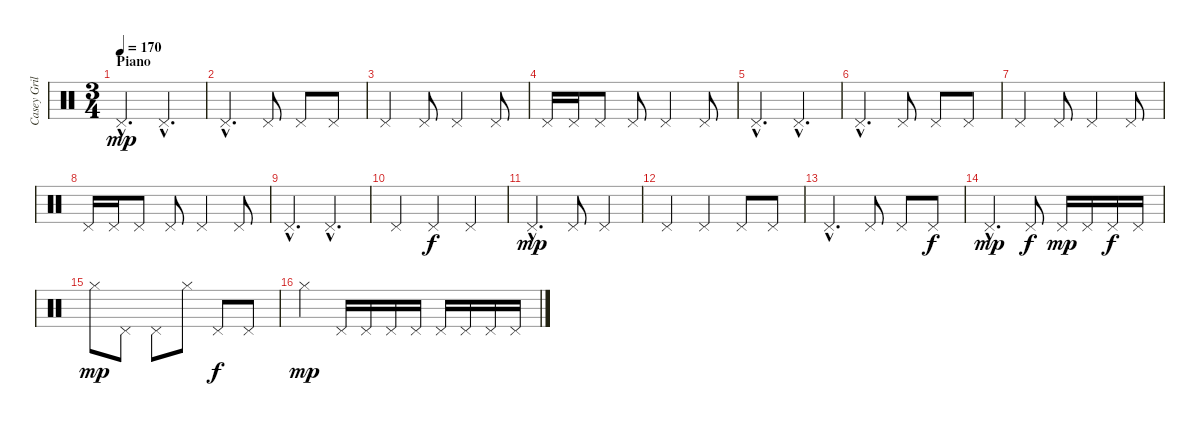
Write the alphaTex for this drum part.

\track ("Casey Grillo" "Casey Gril") {instrument percussion}
\staff {score}
\articulation defaults
\ts (3 4)
\section ("" "Piano")
\tempo 170
\clef neutral
\ks c "Pedal Hi-Hat (hit)"{hac}.4{d dy mp} "Pedal Hi-Hat (hit)"{hac}.4{d}
|
"Pedal Hi-Hat (hit)"{hac}.4{d} "Pedal Hi-Hat (hit)".8 "Pedal Hi-Hat (hit)".8 "Pedal Hi-Hat (hit)".8 |
"Pedal Hi-Hat (hit)".4 "Pedal Hi-Hat (hit)".8 "Pedal Hi-Hat (hit)".4 "Pedal Hi-Hat (hit)".8 |
"Pedal Hi-Hat (hit)".16 "Pedal Hi-Hat (hit)".16 "Pedal Hi-Hat (hit)".8 "Pedal Hi-Hat (hit)".8 "Pedal Hi-Hat (hit)".4 "Pedal Hi-Hat (hit)".8 |
"Pedal Hi-Hat (hit)"{hac}.4{d} "Pedal Hi-Hat (hit)"{hac}.4{d} |
"Pedal Hi-Hat (hit)"{hac}.4{d} "Pedal Hi-Hat (hit)".8 "Pedal Hi-Hat (hit)".8 "Pedal Hi-Hat (hit)".8 |
"Pedal Hi-Hat (hit)".4 "Pedal Hi-Hat (hit)".8 "Pedal Hi-Hat (hit)".4 "Pedal Hi-Hat (hit)".8 |
"Pedal Hi-Hat (hit)".16 "Pedal Hi-Hat (hit)".16 "Pedal Hi-Hat (hit)".8 "Pedal Hi-Hat (hit)".8 "Pedal Hi-Hat (hit)".4 "Pedal Hi-Hat (hit)".8 |
"Pedal Hi-Hat (hit)"{hac}.4{d} "Pedal Hi-Hat (hit)"{hac}.4{d} |
"Pedal Hi-Hat (hit)".4 "Pedal Hi-Hat (hit)".4{dy f} "Pedal Hi-Hat (hit)".4 |
"Pedal Hi-Hat (hit)"{hac}.4{d dy mp} "Pedal Hi-Hat (hit)".8 "Pedal Hi-Hat (hit)".4 |
"Pedal Hi-Hat (hit)".4 "Pedal Hi-Hat (hit)".4 "Pedal Hi-Hat (hit)".8 "Pedal Hi-Hat (hit)".8 |
"Pedal Hi-Hat (hit)"{hac}.4{d} "Pedal Hi-Hat (hit)".8 "Pedal Hi-Hat (hit)".8 "Pedal Hi-Hat (hit)".8{dy f} |
"Pedal Hi-Hat (hit)"{hac}.4{d dy mp} "Pedal Hi-Hat (hit)".8{dy f} "Pedal Hi-Hat (hit)".16{dy mp} "Pedal Hi-Hat (hit)".16 "Pedal Hi-Hat (hit)".16{dy f} "Pedal Hi-Hat (hit)".16 |
"Hi-Hat (closed)".8{dy mp} "Pedal Hi-Hat (hit)".8 "Pedal Hi-Hat (hit)".8 "Hi-Hat (closed)".8 "Pedal Hi-Hat (hit)".8{dy f} "Pedal Hi-Hat (hit)".8 |
"Hi-Hat (closed)".4{dy mp} "Pedal Hi-Hat (hit)".16 "Pedal Hi-Hat (hit)".16 "Pedal Hi-Hat (hit)".16 "Pedal Hi-Hat (hit)".16 "Pedal Hi-Hat (hit)".16 "Pedal Hi-Hat (hit)".16 "Pedal Hi-Hat (hit)".16 "Pedal Hi-Hat (hit)".16
